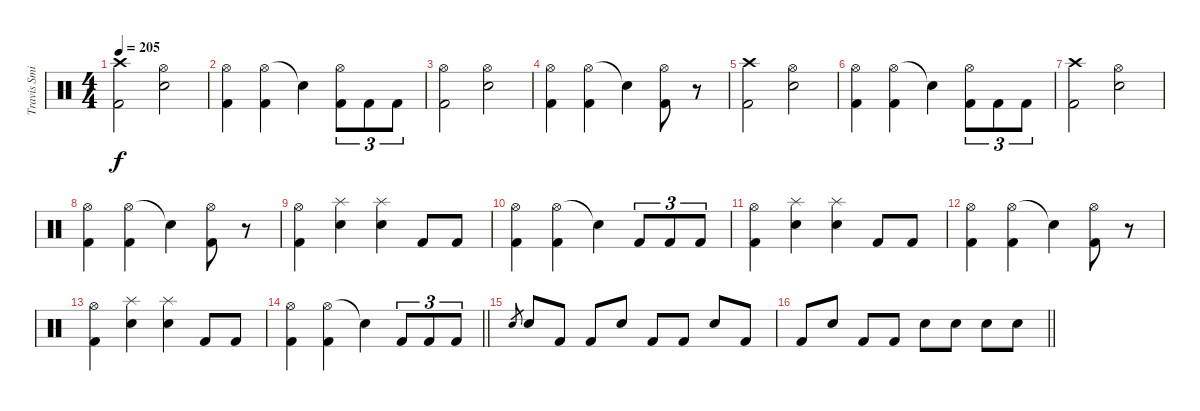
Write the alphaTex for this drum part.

\track ("Travis Smith" "Travis Smi") {instrument percussion}
\staff {score}
\articulation defaults
\ts (4 4)
\tempo 205
\clef neutral
\ks c
("Crash high (hit)" "Kick (hit) 2").2{dy f} ("Hi-Hat (open)" "Snare (hit) 2").2 |
("Hi-Hat (open)" "Kick (hit) 2").4 ("Hi-Hat (open)" "Kick (hit) 2").4 "Snare (hit)"{t}.4 ("Hi-Hat (open)" "Kick (hit) 2").8{tu (3 2)} "Kick (hit) 2".8{tu (3 2)} "Kick (hit) 2".8{tu (3 2)} |
("Hi-Hat (open)" "Kick (hit) 2").2 ("Hi-Hat (open)" "Snare (hit) 2").2 |
("Hi-Hat (open)" "Kick (hit) 2").4 ("Hi-Hat (open)" "Kick (hit) 2").4 "Snare (hit)"{t}.4 ("Hi-Hat (open)" "Kick (hit) 2").8 r.8 |
("Crash high (hit)" "Kick (hit) 2").2 ("Hi-Hat (open)" "Snare (hit) 2").2 |
("Hi-Hat (open)" "Kick (hit) 2").4 ("Hi-Hat (open)" "Kick (hit) 2").4 "Snare (hit)"{t}.4 ("Hi-Hat (open)" "Kick (hit) 2").8{tu (3 2)} "Kick (hit) 2".8{tu (3 2)} "Kick (hit) 2".8{tu (3 2)} |
("Crash high (hit)" "Kick (hit) 2").2 ("Hi-Hat (open)" "Snare (hit) 2").2 |
("Hi-Hat (open)" "Kick (hit) 2").4 ("Hi-Hat (open)" "Kick (hit) 2").4 "Snare (hit)"{t}.4 ("Hi-Hat (open)" "Kick (hit) 2").8 r.8 |
("Hi-Hat (open)" "Kick (hit) 2").4 ("Splash (hit)" "Snare (hit) 2").4 ("Splash (hit)" "Snare (hit) 2").4 "Kick (hit) 2".8 "Kick (hit) 2".8 |
("Hi-Hat (open)" "Kick (hit) 2").4 ("Hi-Hat (open)" "Kick (hit) 2").4 "Snare (hit)"{t}.4 "Kick (hit) 2".8{tu (3 2)} "Kick (hit) 2".8{tu (3 2)} "Kick (hit) 2".8{tu (3 2)} |
("Hi-Hat (open)" "Kick (hit) 2").4 ("Splash (hit)" "Snare (hit) 2").4 ("Splash (hit)" "Snare (hit) 2").4 "Kick (hit) 2".8 "Kick (hit) 2".8 |
("Hi-Hat (open)" "Kick (hit) 2").4 ("Hi-Hat (open)" "Kick (hit) 2").4 "Snare (hit)"{t}.4 ("Hi-Hat (open)" "Kick (hit) 2").8 r.8 |
("Hi-Hat (open)" "Kick (hit) 2").4 ("Splash (hit)" "Snare (hit) 2").4 ("Splash (hit)" "Snare (hit) 2").4 "Kick (hit) 2".8 "Kick (hit) 2".8 |
\barLineRight lightlight
("Hi-Hat (open)" "Kick (hit) 2").4 ("Hi-Hat (open)" "Kick (hit) 2").4 "Snare (hit)"{t}.4 "Kick (hit) 2".8{tu (3 2)} "Kick (hit) 2".8{tu (3 2)} "Kick (hit) 2".8{tu (3 2)} |
\section ("" "")
"Snare (hit) 2".8{gr} "Snare (hit) 2".8 "Kick (hit) 2".8 "Kick (hit) 2".8 "Snare (hit) 2".8 "Kick (hit) 2".8 "Kick (hit) 2".8 "Snare (hit) 2".8 "Kick (hit) 2".8 |
\barLineRight lightlight "Kick (hit) 2".8 "Snare (hit) 2".8 "Kick (hit) 2".8 "Kick (hit) 2".8 "Snare (hit) 2".8 "Snare (hit) 2".8 "Snare (hit) 2".8 "Snare (hit) 2".8
